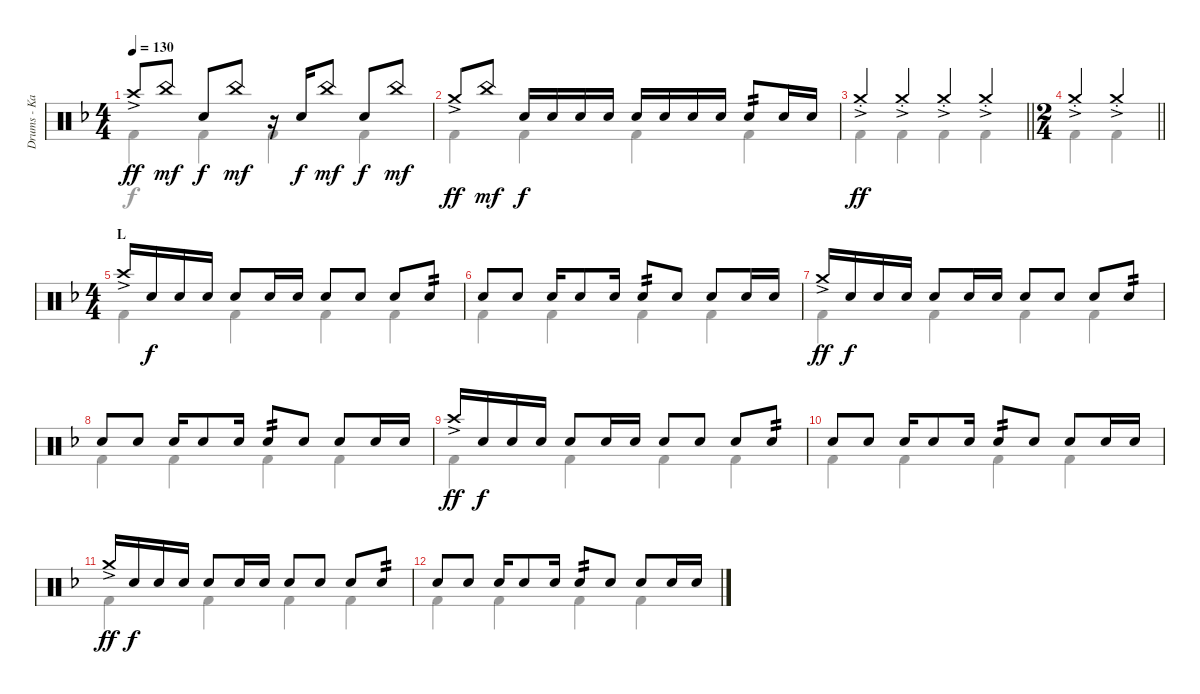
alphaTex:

\track ("Drums - Kai" "Drums - Ka") {instrument percussion}
\staff {score}
\articulation defaults
\voice
\ts (4 4)
\tempo 130
\clef neutral
\ks f "Crash high (hit)"{ac}.8{dy ff} "China (hit)".8{dy mf} "Electric Snare (hit)".8{dy f} "China (hit)".8{dy mf}
r.16 "Electric Snare (hit)".16{dy f} "China (hit)".8{dy mf} "Electric Snare (hit)".8{dy f} "China (hit)".8{dy mf} |
"Crash medium (hit)"{ac}.8{dy ff} "China (hit)".8{dy mf} "Electric Snare (hit)".16{dy f} "Electric Snare (hit)".16 "Electric Snare (hit)".16 "Electric Snare (hit)".16 "Electric Snare (hit)".16 "Electric Snare (hit)".16 "Electric Snare (hit)".16 "Electric Snare (hit)".16 "Electric Snare (hit)".8{tp 2} "Electric Snare (hit)".16 "Electric Snare (hit)".16 |
\barLineRight lightlight "Crash medium (hit)"{ac st}.4{dy ff} "Crash medium (hit)"{ac st}.4 "Crash medium (hit)"{ac st}.4 "Crash medium (hit)"{ac st}.4
|
\ts (2 4)
\barLineRight lightlight "Crash medium (hit)"{ac st}.4 "Crash medium (hit)"{ac st}.4
|
\ts (4 4)
\section ("" "L")
"Crash high (hit)"{ac}.16 "Electric Snare (hit)".16{dy f} "Electric Snare (hit)".16 "Electric Snare (hit)".16 "Electric Snare (hit)".8 "Electric Snare (hit)".16 "Electric Snare (hit)".16 "Electric Snare (hit)".8 "Electric Snare (hit)".8 "Electric Snare (hit)".8 "Electric Snare (hit)".8{tp 2} |
"Electric Snare (hit)".8 "Electric Snare (hit)".8 "Electric Snare (hit)".16 "Electric Snare (hit)".8 "Electric Snare (hit)".16 "Electric Snare (hit)".8{tp 2} "Electric Snare (hit)".8 "Electric Snare (hit)".8 "Electric Snare (hit)".16 "Electric Snare (hit)".16 |
"Crash medium (hit)"{ac}.16{dy ff} "Electric Snare (hit)".16{dy f} "Electric Snare (hit)".16 "Electric Snare (hit)".16 "Electric Snare (hit)".8 "Electric Snare (hit)".16 "Electric Snare (hit)".16 "Electric Snare (hit)".8 "Electric Snare (hit)".8 "Electric Snare (hit)".8 "Electric Snare (hit)".8{tp 2} |
"Electric Snare (hit)".8 "Electric Snare (hit)".8 "Electric Snare (hit)".16 "Electric Snare (hit)".8 "Electric Snare (hit)".16 "Electric Snare (hit)".8{tp 2} "Electric Snare (hit)".8 "Electric Snare (hit)".8 "Electric Snare (hit)".16 "Electric Snare (hit)".16 |
"Crash high (hit)"{ac}.16{dy ff} "Electric Snare (hit)".16{dy f} "Electric Snare (hit)".16 "Electric Snare (hit)".16 "Electric Snare (hit)".8 "Electric Snare (hit)".16 "Electric Snare (hit)".16 "Electric Snare (hit)".8 "Electric Snare (hit)".8 "Electric Snare (hit)".8 "Electric Snare (hit)".8{tp 2} |
"Electric Snare (hit)".8 "Electric Snare (hit)".8 "Electric Snare (hit)".16 "Electric Snare (hit)".8 "Electric Snare (hit)".16 "Electric Snare (hit)".8{tp 2} "Electric Snare (hit)".8 "Electric Snare (hit)".8 "Electric Snare (hit)".16 "Electric Snare (hit)".16 |
"Crash medium (hit)"{ac}.16{dy ff} "Electric Snare (hit)".16{dy f} "Electric Snare (hit)".16 "Electric Snare (hit)".16 "Electric Snare (hit)".8 "Electric Snare (hit)".16 "Electric Snare (hit)".16 "Electric Snare (hit)".8 "Electric Snare (hit)".8 "Electric Snare (hit)".8 "Electric Snare (hit)".8{tp 2} |
"Electric Snare (hit)".8 "Electric Snare (hit)".8 "Electric Snare (hit)".16 "Electric Snare (hit)".8 "Electric Snare (hit)".16 "Electric Snare (hit)".8{tp 2} "Electric Snare (hit)".8 "Electric Snare (hit)".8 "Electric Snare (hit)".16 "Electric Snare (hit)".16
\voice
\clef neutral
\ottava regular
\simile none
\ks f "Kick (hit) 2".4{dy f} "Kick (hit) 2".4 "Kick (hit) 2".4 "Kick (hit) 2".4
|
"Kick (hit) 2".4 "Kick (hit) 2".4 "Kick (hit) 2".4 "Kick (hit) 2".4 |
\barLineRight lightlight "Kick (hit) 2".4 "Kick (hit) 2".4 "Kick (hit) 2".4 "Kick (hit) 2".4
|
\barLineRight lightlight "Kick (hit) 2".4 "Kick (hit) 2".4
|
"Kick (hit) 2".4 "Kick (hit) 2".4 "Kick (hit) 2".4 "Kick (hit) 2".4 |
"Kick (hit) 2".4 "Kick (hit) 2".4 "Kick (hit) 2".4 "Kick (hit) 2".4 |
"Kick (hit) 2".4 "Kick (hit) 2".4 "Kick (hit) 2".4 "Kick (hit) 2".4 |
"Kick (hit) 2".4 "Kick (hit) 2".4 "Kick (hit) 2".4 "Kick (hit) 2".4 |
"Kick (hit) 2".4 "Kick (hit) 2".4 "Kick (hit) 2".4 "Kick (hit) 2".4 |
"Kick (hit) 2".4 "Kick (hit) 2".4 "Kick (hit) 2".4 "Kick (hit) 2".4 |
"Kick (hit) 2".4 "Kick (hit) 2".4 "Kick (hit) 2".4 "Kick (hit) 2".4 |
"Kick (hit) 2".4 "Kick (hit) 2".4 "Kick (hit) 2".4 "Kick (hit) 2".4
